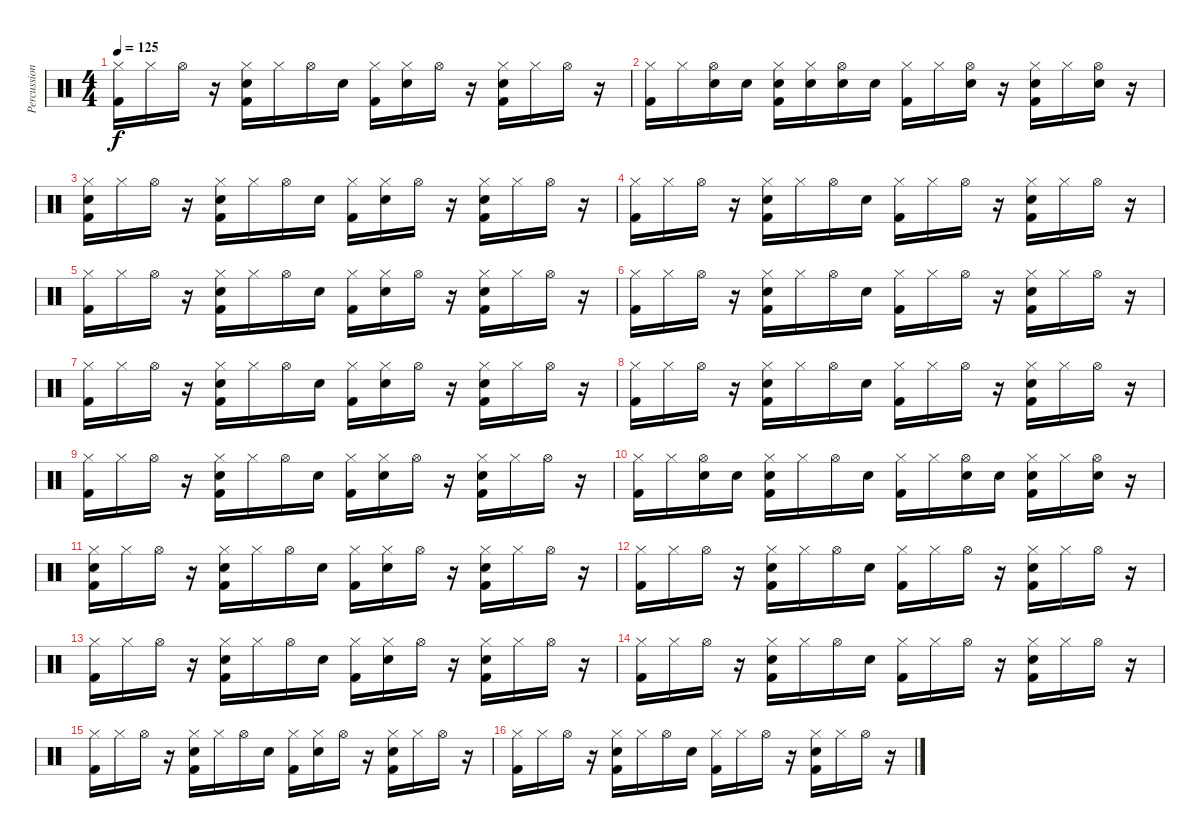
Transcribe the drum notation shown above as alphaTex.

\track ("Percussion" "Percussion") {instrument percussion}
\staff {score}
\articulation defaults
\ts (4 4)
\tempo 125
\clef neutral
\ks c
("Hi-Hat (closed)" "Kick (hit) 2").16{dy f} "Hi-Hat (closed)".16 "Hi-Hat (open)".16 r.16 ("Hi-Hat (closed)" "Electric Snare (hit)" "Kick (hit) 2").16 "Hi-Hat (closed)".16 "Hi-Hat (open)".16 "Electric Snare (hit)".16 ("Hi-Hat (closed)" "Kick (hit) 2").16 ("Hi-Hat (closed)" "Electric Snare (hit)").16 "Hi-Hat (open)".16 r.16 ("Hi-Hat (closed)" "Electric Snare (hit)" "Kick (hit) 2").16 "Hi-Hat (closed)".16 "Hi-Hat (open)".16 r.16 |
("Hi-Hat (closed)" "Kick (hit) 2").16 "Hi-Hat (closed)".16 ("Hi-Hat (open)" "Electric Snare (hit)").16 "Electric Snare (hit)".16 ("Hi-Hat (closed)" "Electric Snare (hit)" "Kick (hit) 2").16 ("Hi-Hat (closed)" "Electric Snare (hit)").16 ("Hi-Hat (open)" "Electric Snare (hit)").16 "Electric Snare (hit)".16 ("Hi-Hat (closed)" "Kick (hit) 2").16 "Hi-Hat (closed)".16 ("Hi-Hat (open)" "Electric Snare (hit)").16 r.16 ("Hi-Hat (closed)" "Electric Snare (hit)" "Kick (hit) 2").16 "Hi-Hat (closed)".16 ("Hi-Hat (open)" "Electric Snare (hit)").16 r.16 |
("Hi-Hat (closed)" "Electric Snare (hit)" "Kick (hit) 2").16 "Hi-Hat (closed)".16 "Hi-Hat (open)".16 r.16 ("Hi-Hat (closed)" "Electric Snare (hit)" "Kick (hit) 2").16 "Hi-Hat (closed)".16 "Hi-Hat (open)".16 "Electric Snare (hit)".16 ("Hi-Hat (closed)" "Kick (hit) 2").16 ("Hi-Hat (closed)" "Electric Snare (hit)").16 "Hi-Hat (open)".16 r.16 ("Hi-Hat (closed)" "Electric Snare (hit)" "Kick (hit) 2").16 "Hi-Hat (closed)".16 "Hi-Hat (open)".16 r.16 |
("Hi-Hat (closed)" "Kick (hit) 2").16 "Hi-Hat (closed)".16 "Hi-Hat (open)".16 r.16 ("Hi-Hat (closed)" "Electric Snare (hit)" "Kick (hit) 2").16 "Hi-Hat (closed)".16 "Hi-Hat (open)".16 "Electric Snare (hit)".16 ("Hi-Hat (closed)" "Kick (hit) 2").16 "Hi-Hat (closed)".16 "Hi-Hat (open)".16 r.16 ("Hi-Hat (closed)" "Electric Snare (hit)" "Kick (hit) 2").16 "Hi-Hat (closed)".16 "Hi-Hat (open)".16 r.16 |
("Hi-Hat (closed)" "Kick (hit) 2").16 "Hi-Hat (closed)".16 "Hi-Hat (open)".16 r.16 ("Hi-Hat (closed)" "Electric Snare (hit)" "Kick (hit) 2").16 "Hi-Hat (closed)".16 "Hi-Hat (open)".16 "Electric Snare (hit)".16 ("Hi-Hat (closed)" "Kick (hit) 2").16 ("Hi-Hat (closed)" "Electric Snare (hit)").16 "Hi-Hat (open)".16 r.16 ("Hi-Hat (closed)" "Electric Snare (hit)" "Kick (hit) 2").16 "Hi-Hat (closed)".16 "Hi-Hat (open)".16 r.16 |
("Hi-Hat (closed)" "Kick (hit) 2").16 "Hi-Hat (closed)".16 "Hi-Hat (open)".16 r.16 ("Hi-Hat (closed)" "Electric Snare (hit)" "Kick (hit) 2").16 "Hi-Hat (closed)".16 "Hi-Hat (open)".16 "Electric Snare (hit)".16 ("Hi-Hat (closed)" "Kick (hit) 2").16 "Hi-Hat (closed)".16 "Hi-Hat (open)".16 r.16 ("Hi-Hat (closed)" "Electric Snare (hit)" "Kick (hit) 2").16 "Hi-Hat (closed)".16 "Hi-Hat (open)".16 r.16 |
("Hi-Hat (closed)" "Kick (hit) 2").16 "Hi-Hat (closed)".16 "Hi-Hat (open)".16 r.16 ("Hi-Hat (closed)" "Electric Snare (hit)" "Kick (hit) 2").16 "Hi-Hat (closed)".16 "Hi-Hat (open)".16 "Electric Snare (hit)".16 ("Hi-Hat (closed)" "Kick (hit) 2").16 ("Hi-Hat (closed)" "Electric Snare (hit)").16 "Hi-Hat (open)".16 r.16 ("Hi-Hat (closed)" "Electric Snare (hit)" "Kick (hit) 2").16 "Hi-Hat (closed)".16 "Hi-Hat (open)".16 r.16 |
("Hi-Hat (closed)" "Kick (hit) 2").16 "Hi-Hat (closed)".16 "Hi-Hat (open)".16 r.16 ("Hi-Hat (closed)" "Electric Snare (hit)" "Kick (hit) 2").16 "Hi-Hat (closed)".16 "Hi-Hat (open)".16 "Electric Snare (hit)".16 ("Hi-Hat (closed)" "Kick (hit) 2").16 "Hi-Hat (closed)".16 "Hi-Hat (open)".16 r.16 ("Hi-Hat (closed)" "Electric Snare (hit)" "Kick (hit) 2").16 "Hi-Hat (closed)".16 "Hi-Hat (open)".16 r.16 |
("Hi-Hat (closed)" "Kick (hit) 2").16 "Hi-Hat (closed)".16 "Hi-Hat (open)".16 r.16 ("Hi-Hat (closed)" "Electric Snare (hit)" "Kick (hit) 2").16 "Hi-Hat (closed)".16 "Hi-Hat (open)".16 "Electric Snare (hit)".16 ("Hi-Hat (closed)" "Kick (hit) 2").16 ("Hi-Hat (closed)" "Electric Snare (hit)").16 "Hi-Hat (open)".16 r.16 ("Hi-Hat (closed)" "Electric Snare (hit)" "Kick (hit) 2").16 "Hi-Hat (closed)".16 "Hi-Hat (open)".16 r.16 |
("Hi-Hat (closed)" "Kick (hit) 2").16 "Hi-Hat (closed)".16 ("Hi-Hat (open)" "Electric Snare (hit)").16 "Electric Snare (hit)".16 ("Hi-Hat (closed)" "Electric Snare (hit)" "Kick (hit) 2").16 "Hi-Hat (closed)".16 "Hi-Hat (open)".16 "Electric Snare (hit)".16 ("Hi-Hat (closed)" "Kick (hit) 2").16 "Hi-Hat (closed)".16 ("Hi-Hat (open)" "Electric Snare (hit)").16 "Electric Snare (hit)".16 ("Hi-Hat (closed)" "Electric Snare (hit)" "Kick (hit) 2").16 "Hi-Hat (closed)".16 ("Hi-Hat (open)" "Electric Snare (hit)").16 r.16 |
("Hi-Hat (closed)" "Electric Snare (hit)" "Kick (hit) 2").16 "Hi-Hat (closed)".16 "Hi-Hat (open)".16 r.16 ("Hi-Hat (closed)" "Electric Snare (hit)" "Kick (hit) 2").16 "Hi-Hat (closed)".16 "Hi-Hat (open)".16 "Electric Snare (hit)".16 ("Hi-Hat (closed)" "Kick (hit) 2").16 ("Hi-Hat (closed)" "Electric Snare (hit)").16 "Hi-Hat (open)".16 r.16 ("Hi-Hat (closed)" "Electric Snare (hit)" "Kick (hit) 2").16 "Hi-Hat (closed)".16 "Hi-Hat (open)".16 r.16 |
("Hi-Hat (closed)" "Kick (hit) 2").16 "Hi-Hat (closed)".16 "Hi-Hat (open)".16 r.16 ("Hi-Hat (closed)" "Electric Snare (hit)" "Kick (hit) 2").16 "Hi-Hat (closed)".16 "Hi-Hat (open)".16 "Electric Snare (hit)".16 ("Hi-Hat (closed)" "Kick (hit) 2").16 "Hi-Hat (closed)".16 "Hi-Hat (open)".16 r.16 ("Hi-Hat (closed)" "Electric Snare (hit)" "Kick (hit) 2").16 "Hi-Hat (closed)".16 "Hi-Hat (open)".16 r.16 |
("Hi-Hat (closed)" "Kick (hit) 2").16 "Hi-Hat (closed)".16 "Hi-Hat (open)".16 r.16 ("Hi-Hat (closed)" "Electric Snare (hit)" "Kick (hit) 2").16 "Hi-Hat (closed)".16 "Hi-Hat (open)".16 "Electric Snare (hit)".16 ("Hi-Hat (closed)" "Kick (hit) 2").16 ("Hi-Hat (closed)" "Electric Snare (hit)").16 "Hi-Hat (open)".16 r.16 ("Hi-Hat (closed)" "Electric Snare (hit)" "Kick (hit) 2").16 "Hi-Hat (closed)".16 "Hi-Hat (open)".16 r.16 |
("Hi-Hat (closed)" "Kick (hit) 2").16 "Hi-Hat (closed)".16 "Hi-Hat (open)".16 r.16 ("Hi-Hat (closed)" "Electric Snare (hit)" "Kick (hit) 2").16 "Hi-Hat (closed)".16 "Hi-Hat (open)".16 "Electric Snare (hit)".16 ("Hi-Hat (closed)" "Kick (hit) 2").16 "Hi-Hat (closed)".16 "Hi-Hat (open)".16 r.16 ("Hi-Hat (closed)" "Electric Snare (hit)" "Kick (hit) 2").16 "Hi-Hat (closed)".16 "Hi-Hat (open)".16 r.16 |
("Hi-Hat (closed)" "Kick (hit) 2").16 "Hi-Hat (closed)".16 "Hi-Hat (open)".16 r.16 ("Hi-Hat (closed)" "Electric Snare (hit)" "Kick (hit) 2").16 "Hi-Hat (closed)".16 "Hi-Hat (open)".16 "Electric Snare (hit)".16 ("Hi-Hat (closed)" "Kick (hit) 2").16 ("Hi-Hat (closed)" "Electric Snare (hit)").16 "Hi-Hat (open)".16 r.16 ("Hi-Hat (closed)" "Electric Snare (hit)" "Kick (hit) 2").16 "Hi-Hat (closed)".16 "Hi-Hat (open)".16 r.16 |
("Hi-Hat (closed)" "Kick (hit) 2").16 "Hi-Hat (closed)".16 "Hi-Hat (open)".16 r.16 ("Hi-Hat (closed)" "Electric Snare (hit)" "Kick (hit) 2").16 "Hi-Hat (closed)".16 "Hi-Hat (open)".16 "Electric Snare (hit)".16 ("Hi-Hat (closed)" "Kick (hit) 2").16 "Hi-Hat (closed)".16 "Hi-Hat (open)".16 r.16 ("Hi-Hat (closed)" "Electric Snare (hit)" "Kick (hit) 2").16 "Hi-Hat (closed)".16 "Hi-Hat (open)".16 r.16
